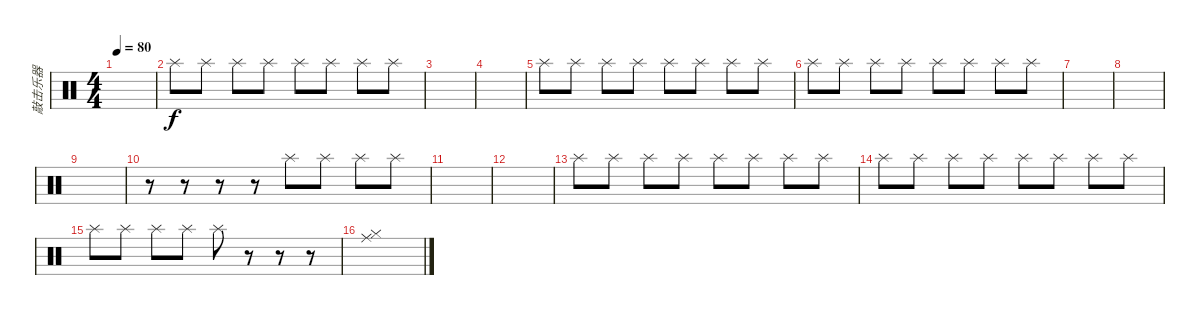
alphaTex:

\track ("敲击乐器" "敲击乐器") {instrument percussion}
\staff {score}
\articulation defaults
\ts (4 4)
\tempo 80
\clef neutral
\ks c
|
"Splash (hit)".8 "Splash (hit)".8 "Splash (hit)".8 "Splash (hit)".8 "Splash (hit)".8 "Splash (hit)".8 "Splash (hit)".8 "Splash (hit)".8 |
|
|
"Splash (hit)".8 "Splash (hit)".8 "Splash (hit)".8 "Splash (hit)".8 "Splash (hit)".8 "Splash (hit)".8 "Splash (hit)".8 "Splash (hit)".8 |
"Splash (hit)".8 "Splash (hit)".8 "Splash (hit)".8 "Splash (hit)".8 "Splash (hit)".8 "Splash (hit)".8 "Splash (hit)".8 "Splash (hit)".8 |
|
|
|
r.8 r.8 r.8 r.8 "Splash (hit)".8 "Splash (hit)".8 "Splash (hit)".8 "Splash (hit)".8 |
|
|
"Splash (hit)".8 "Splash (hit)".8 "Splash (hit)".8 "Splash (hit)".8 "Splash (hit)".8 "Splash (hit)".8 "Splash (hit)".8 "Splash (hit)".8 |
"Splash (hit)".8 "Splash (hit)".8 "Splash (hit)".8 "Splash (hit)".8 "Splash (hit)".8 "Splash (hit)".8 "Splash (hit)".8 "Splash (hit)".8 |
"Splash (hit)".8 "Splash (hit)".8 "Splash (hit)".8 "Splash (hit)".8 "Splash (hit)".8 r.8 r.8 r.8 |
("Hi-Hat (closed)" "Ride (middle)").1
